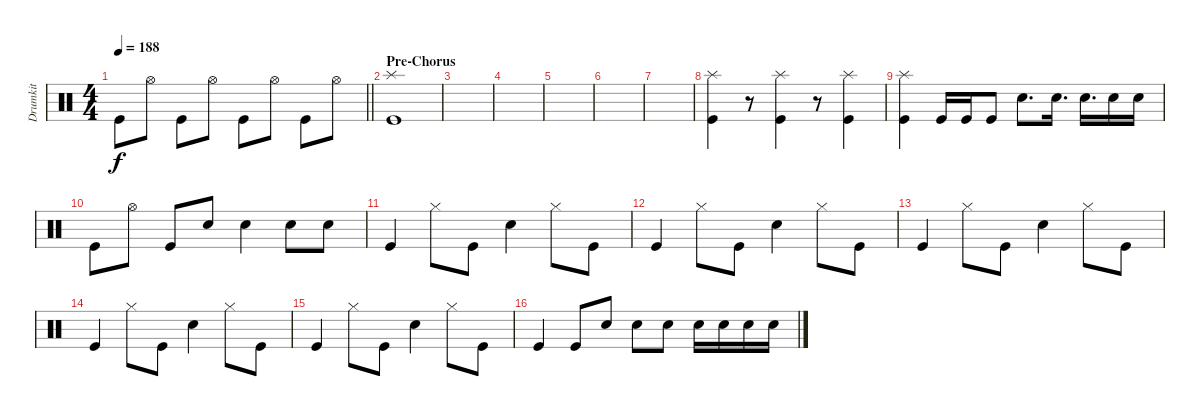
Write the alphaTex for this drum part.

\track ("Drumkit" "Drumkit") {instrument percussion}
\staff {score}
\articulation defaults
\ts (4 4)
\tempo 188
\clef neutral
\barLineRight lightlight
\ks c "Kick (hit)".8{dy f} "Hi-Hat (open)".8 "Kick (hit)".8 "Hi-Hat (open)".8 "Kick (hit)".8 "Hi-Hat (open)".8 "Kick (hit)".8 "Hi-Hat (open)".8
|
\section ("" "Pre-Chorus")
("Kick (hit)" "Splash (hit)").1 |
|
|
|
|
|
("Kick (hit)" "Splash (hit)").4 r.8 ("Kick (hit)" "Splash (hit)").4 r.8 ("Kick (hit)" "Splash (hit)").4 |
("Kick (hit)" "Splash (hit)").4 "Kick (hit)".16 "Kick (hit)".16 "Kick (hit)".8 "Snare (hit) 2".8{d} "Snare (hit) 2".16{d} "Snare (hit) 2".16{d} "Snare (hit) 2".16 "Snare (hit) 2".16 |
"Kick (hit)".8 "Hi-Hat (open)".8 "Kick (hit)".8 "Snare (hit) 2".8 "Snare (hit) 2".4 "Snare (hit) 2".8 "Snare (hit) 2".8 |
"Kick (hit)".4 "Hi-Hat (closed)".8 "Kick (hit)".8 "Snare (hit) 2".4 "Hi-Hat (closed)".8 "Kick (hit)".8 |
"Kick (hit)".4 "Hi-Hat (closed)".8 "Kick (hit)".8 "Snare (hit) 2".4 "Hi-Hat (closed)".8 "Kick (hit)".8 |
"Kick (hit)".4 "Hi-Hat (closed)".8 "Kick (hit)".8 "Snare (hit) 2".4 "Hi-Hat (closed)".8 "Kick (hit)".8 |
"Kick (hit)".4 "Hi-Hat (closed)".8 "Kick (hit)".8 "Snare (hit) 2".4 "Hi-Hat (closed)".8 "Kick (hit)".8 |
"Kick (hit)".4 "Hi-Hat (closed)".8 "Kick (hit)".8 "Snare (hit) 2".4 "Hi-Hat (closed)".8 "Kick (hit)".8 |
"Kick (hit)".4 "Kick (hit)".8 "Snare (hit) 2".8 "Snare (hit) 2".8 "Snare (hit) 2".8 "Snare (hit) 2".16 "Snare (hit) 2".16 "Snare (hit) 2".16 "Snare (hit) 2".16
